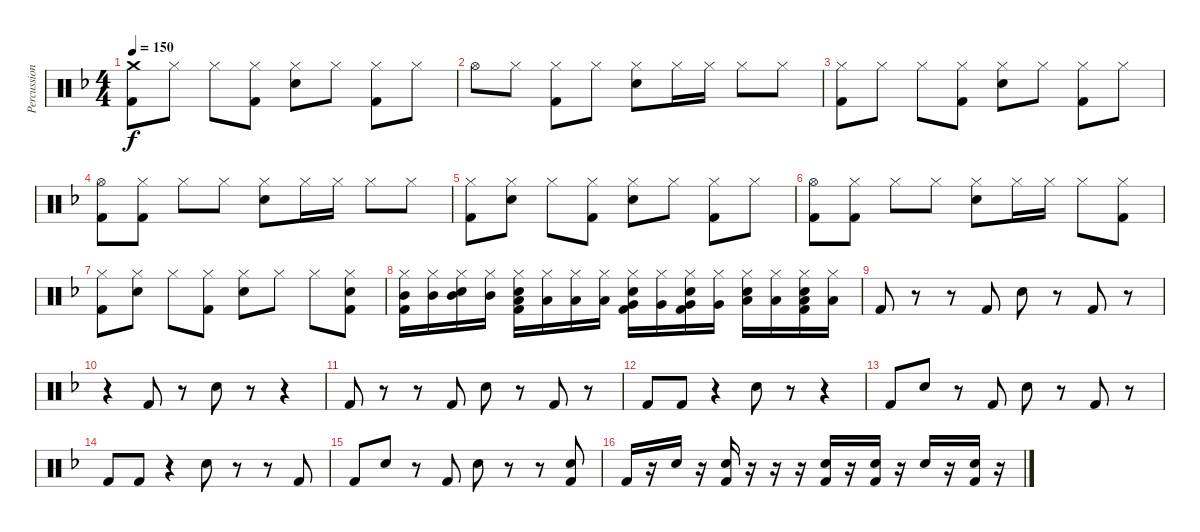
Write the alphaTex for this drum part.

\track ("Percussion" "Percussion") {instrument percussion}
\staff {score}
\articulation defaults
\ts (4 4)
\tempo 150
\clef neutral
\ks f
("Crash medium (hit)" "Kick (hit) 2").8{dy f} "Hi-Hat (closed)".8 "Hi-Hat (closed)".8 ("Hi-Hat (closed)" "Kick (hit) 2").8 ("Hi-Hat (closed)" "Electric Snare (hit)").8 "Hi-Hat (closed)".8 ("Hi-Hat (closed)" "Kick (hit) 2").8 "Hi-Hat (closed)".8 |
"Hi-Hat (open)".8 "Hi-Hat (closed)".8 ("Hi-Hat (closed)" "Kick (hit) 2").8 "Hi-Hat (closed)".8 ("Hi-Hat (closed)" "Electric Snare (hit)").8 "Hi-Hat (closed)".16 "Hi-Hat (closed)".16 "Hi-Hat (closed)".8 "Hi-Hat (closed)".8 |
("Hi-Hat (closed)" "Kick (hit) 2").8 "Hi-Hat (closed)".8 "Hi-Hat (closed)".8 ("Hi-Hat (closed)" "Kick (hit) 2").8 ("Hi-Hat (closed)" "Electric Snare (hit)").8 "Hi-Hat (closed)".8 ("Hi-Hat (closed)" "Kick (hit) 2").8 "Hi-Hat (closed)".8 |
("Hi-Hat (open)" "Kick (hit) 2").8 ("Hi-Hat (closed)" "Kick (hit) 2").8 "Hi-Hat (closed)".8 "Hi-Hat (closed)".8 ("Hi-Hat (closed)" "Electric Snare (hit)").8 "Hi-Hat (closed)".16 "Hi-Hat (closed)".16 "Hi-Hat (closed)".8 "Hi-Hat (closed)".8 |
("Hi-Hat (closed)" "Kick (hit) 2").8 ("Hi-Hat (closed)" "Electric Snare (hit)").8 "Hi-Hat (closed)".8 ("Hi-Hat (closed)" "Kick (hit) 2").8 ("Hi-Hat (closed)" "Electric Snare (hit)").8 "Hi-Hat (closed)".8 ("Hi-Hat (closed)" "Kick (hit) 2").8 "Hi-Hat (closed)".8 |
("Hi-Hat (open)" "Kick (hit) 2").8 ("Hi-Hat (closed)" "Kick (hit) 2").8 "Hi-Hat (closed)".8 "Hi-Hat (closed)".8 ("Hi-Hat (closed)" "Electric Snare (hit)").8 "Hi-Hat (closed)".16 "Hi-Hat (closed)".16 "Hi-Hat (closed)".8 ("Hi-Hat (closed)" "Kick (hit) 2").8 |
("Hi-Hat (closed)" "Kick (hit) 2").8 ("Hi-Hat (closed)" "Electric Snare (hit)").8 "Hi-Hat (closed)".8 ("Hi-Hat (closed)" "Kick (hit) 2").8 ("Hi-Hat (closed)" "Electric Snare (hit)").8 "Hi-Hat (closed)".8 "Hi-Hat (closed)".8 ("Hi-Hat (closed)" "Electric Snare (hit)" "Kick (hit) 2").8 |
("Hi-Hat (closed)" "Mid Tom (hit)" "Kick (hit) 2").16 ("Hi-Hat (closed)" "Mid Tom (hit)").16 ("Hi-Hat (closed)" "Mid Tom (hit)" "Electric Snare (hit)").16 ("Hi-Hat (closed)" "Mid Tom (hit)").16 ("Hi-Hat (closed)" "Low Tom (hit)" "Electric Snare (hit)" "Kick (hit) 2").16 ("Hi-Hat (closed)" "Low Tom (hit)").16 ("Hi-Hat (closed)" "Low Tom (hit)").16 ("Hi-Hat (closed)" "Low Tom (hit)").16 ("Hi-Hat (closed)" "Very Low Tom (hit)" "Electric Snare (hit)" "Kick (hit) 2").16 ("Hi-Hat (closed)" "Very Low Tom (hit)").16 ("Hi-Hat (closed)" "Very Low Tom (hit)" "Electric Snare (hit)" "Kick (hit) 2").16 ("Hi-Hat (closed)" "Very Low Tom (hit)").16 ("Hi-Hat (closed)" "Low Floor Tom (hit)" "Electric Snare (hit)").16 ("Hi-Hat (closed)" "Low Floor Tom (hit)").16 ("Hi-Hat (closed)" "Low Floor Tom (hit)" "Electric Snare (hit)" "Kick (hit) 2").16 ("Hi-Hat (closed)" "Low Floor Tom (hit)").16 |
"Kick (hit) 2".8 r.8 r.8 "Kick (hit) 2".8 "Electric Snare (hit)".8 r.8 "Kick (hit) 2".8 r.8 |
r.4 "Kick (hit) 2".8 r.8 "Electric Snare (hit)".8 r.8 r.4 |
"Kick (hit) 2".8 r.8 r.8 "Kick (hit) 2".8 "Electric Snare (hit)".8 r.8 "Kick (hit) 2".8 r.8 |
"Kick (hit) 2".8 "Kick (hit) 2".8 r.4 "Electric Snare (hit)".8 r.8 r.4 |
"Kick (hit) 2".8 "Electric Snare (hit)".8 r.8 "Kick (hit) 2".8 "Electric Snare (hit)".8 r.8 "Kick (hit) 2".8 r.8 |
"Kick (hit) 2".8 "Kick (hit) 2".8 r.4 "Electric Snare (hit)".8 r.8 r.8 "Kick (hit) 2".8 |
"Kick (hit) 2".8 "Electric Snare (hit)".8 r.8 "Kick (hit) 2".8 "Electric Snare (hit)".8 r.8 r.8 ("Electric Snare (hit)" "Kick (hit) 2").8 |
"Kick (hit) 2".16 r.16 "Electric Snare (hit)".16 r.16 ("Electric Snare (hit)" "Kick (hit) 2").16 r.16 r.16 r.16 ("Electric Snare (hit)" "Kick (hit) 2").16 r.16 ("Electric Snare (hit)" "Kick (hit) 2").16 r.16 "Electric Snare (hit)".16 r.16 ("Electric Snare (hit)" "Kick (hit) 2").16 r.16
